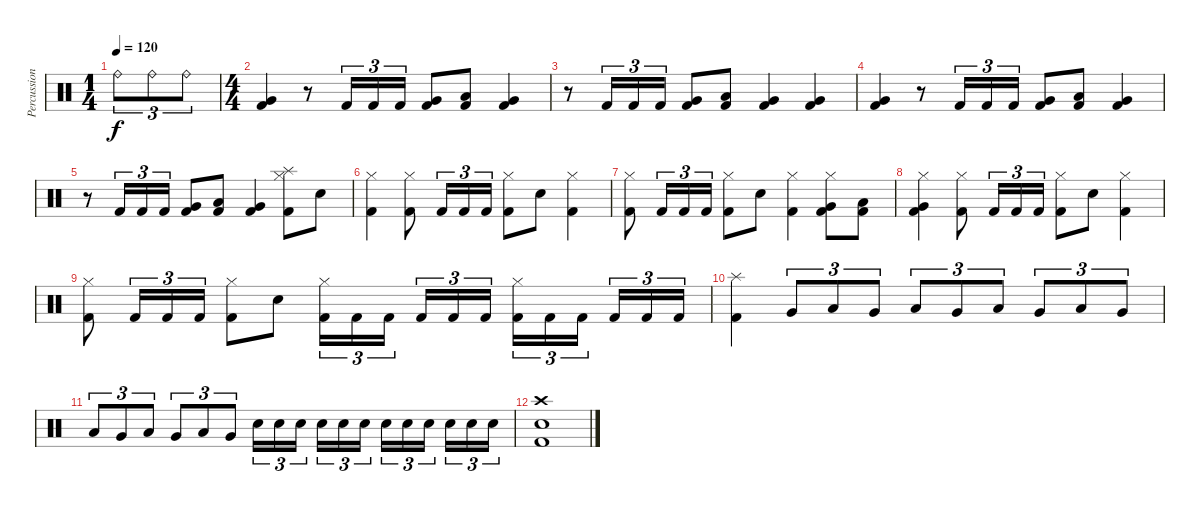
\track ("Percussion" "Percussion") {instrument percussion}
\staff {score}
\articulation defaults
\ts (1 4)
\tempo 120
\clef neutral
\ks c "Ride (bell)".8{tu (3 2) dy f} "Ride (bell)".8{tu (3 2)} "Ride (bell)".8{tu (3 2)}
|
\ts (4 4)
("Very Low Tom (hit)" "Kick (hit) 2").4 r.8 "Kick (hit) 2".16{tu (3 2)} "Kick (hit) 2".16{tu (3 2)} "Kick (hit) 2".16{tu (3 2)} ("Very Low Tom (hit)" "Kick (hit) 2").8 ("Low Tom (hit)" "Kick (hit) 2").8 ("Very Low Tom (hit)" "Kick (hit) 2").4 |
r.8 "Kick (hit) 2".16{tu (3 2)} "Kick (hit) 2".16{tu (3 2)} "Kick (hit) 2".16{tu (3 2)} ("Very Low Tom (hit)" "Kick (hit) 2").8 ("Low Tom (hit)" "Kick (hit) 2").8 ("Very Low Tom (hit)" "Kick (hit) 2").4 ("Very Low Tom (hit)" "Kick (hit) 2").4 |
("Very Low Tom (hit)" "Kick (hit) 2").4 r.8 "Kick (hit) 2".16{tu (3 2)} "Kick (hit) 2".16{tu (3 2)} "Kick (hit) 2".16{tu (3 2)} ("Very Low Tom (hit)" "Kick (hit) 2").8 ("Low Tom (hit)" "Kick (hit) 2").8 ("Very Low Tom (hit)" "Kick (hit) 2").4 |
r.8 "Kick (hit) 2".16{tu (3 2)} "Kick (hit) 2".16{tu (3 2)} "Kick (hit) 2".16{tu (3 2)} ("Very Low Tom (hit)" "Kick (hit) 2").8 ("Low Tom (hit)" "Kick (hit) 2").8 ("Very Low Tom (hit)" "Kick (hit) 2").4 ("Hi-Hat (closed)" "Splash (hit)" "Kick (hit) 2").8 "Electric Snare (hit)".8 |
("Hi-Hat (closed)" "Kick (hit) 2").4 ("Hi-Hat (closed)" "Kick (hit) 2").8 "Kick (hit) 2".16{tu (3 2)} "Kick (hit) 2".16{tu (3 2)} "Kick (hit) 2".16{tu (3 2)} ("Hi-Hat (closed)" "Kick (hit) 2").8 "Electric Snare (hit)".8 ("Hi-Hat (closed)" "Kick (hit) 2").4 |
("Hi-Hat (closed)" "Kick (hit) 2").8 "Kick (hit) 2".16{tu (3 2)} "Kick (hit) 2".16{tu (3 2)} "Kick (hit) 2".16{tu (3 2)} ("Hi-Hat (closed)" "Kick (hit) 2").8 "Electric Snare (hit)".8 ("Hi-Hat (closed)" "Kick (hit) 2").4 ("Hi-Hat (closed)" "Very Low Tom (hit)" "Kick (hit) 2").8 ("Low Tom (hit)" "Kick (hit) 2").8 |
("Hi-Hat (closed)" "Very Low Tom (hit)" "Kick (hit) 2").4 ("Hi-Hat (closed)" "Kick (hit) 2").8 "Kick (hit) 2".16{tu (3 2)} "Kick (hit) 2".16{tu (3 2)} "Kick (hit) 2".16{tu (3 2)} ("Hi-Hat (closed)" "Kick (hit) 2").8 "Electric Snare (hit)".8 ("Hi-Hat (closed)" "Kick (hit) 2").4 |
("Hi-Hat (closed)" "Kick (hit) 2").8 "Kick (hit) 2".16{tu (3 2)} "Kick (hit) 2".16{tu (3 2)} "Kick (hit) 2".16{tu (3 2)} ("Hi-Hat (closed)" "Kick (hit) 2").8 "Electric Snare (hit)".8 ("Hi-Hat (closed)" "Kick (hit) 2").16{tu (3 2)} "Kick (hit) 2".16{tu (3 2)} "Kick (hit) 2".16{tu (3 2)} "Kick (hit) 2".16{tu (3 2)} "Kick (hit) 2".16{tu (3 2)} "Kick (hit) 2".16{tu (3 2)} ("Hi-Hat (closed)" "Kick (hit) 2").16{tu (3 2)} "Kick (hit) 2".16{tu (3 2)} "Kick (hit) 2".16{tu (3 2)} "Kick (hit) 2".16{tu (3 2)} "Kick (hit) 2".16{tu (3 2)} "Kick (hit) 2".16{tu (3 2)} |
("Splash (hit)" "Kick (hit) 2").4 "Very Low Tom (hit)".8{tu (3 2)} "Low Tom (hit)".8{tu (3 2)} "Very Low Tom (hit)".8{tu (3 2)} "Low Tom (hit)".8{tu (3 2)} "Very Low Tom (hit)".8{tu (3 2)} "Low Tom (hit)".8{tu (3 2)} "Very Low Tom (hit)".8{tu (3 2)} "Low Tom (hit)".8{tu (3 2)} "Very Low Tom (hit)".8{tu (3 2)} |
"Low Tom (hit)".8{tu (3 2)} "Very Low Tom (hit)".8{tu (3 2)} "Low Tom (hit)".8{tu (3 2)} "Very Low Tom (hit)".8{tu (3 2)} "Low Tom (hit)".8{tu (3 2)} "Very Low Tom (hit)".8{tu (3 2)} "Electric Snare (hit)".16{tu (3 2)} "Electric Snare (hit)".16{tu (3 2)} "Electric Snare (hit)".16{tu (3 2)} "Electric Snare (hit)".16{tu (3 2)} "Electric Snare (hit)".16{tu (3 2)} "Electric Snare (hit)".16{tu (3 2)} "Electric Snare (hit)".16{tu (3 2)} "Electric Snare (hit)".16{tu (3 2)} "Electric Snare (hit)".16{tu (3 2)} "Electric Snare (hit)".16{tu (3 2)} "Electric Snare (hit)".16{tu (3 2)} "Electric Snare (hit)".16{tu (3 2)} |
("Crash high (hit)" "Electric Snare (hit)" "Kick (hit) 2").1
